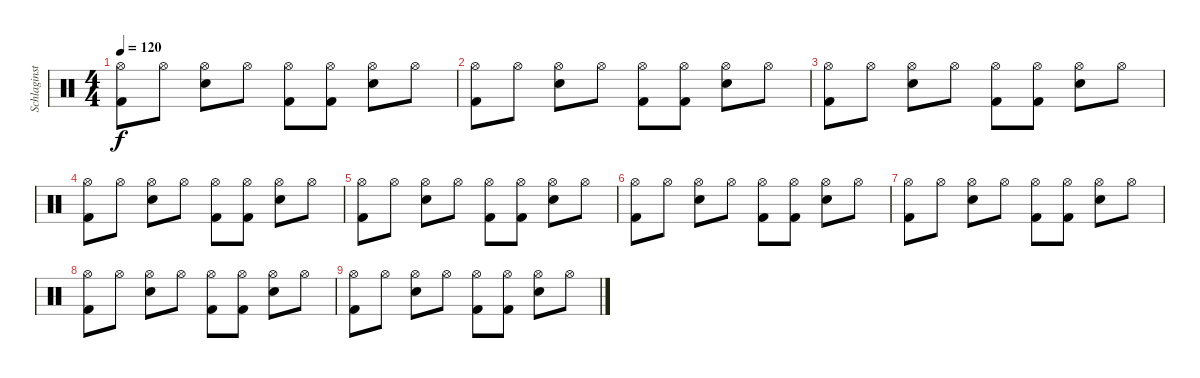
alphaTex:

\track ("Schlaginstrumente - Auswahl" "Schlaginst") {instrument percussion}
\staff {score}
\articulation defaults
\ts (4 4)
\tempo 120
\clef neutral
\ks c
("Hi-Hat (open)" "Kick (hit) 2").8{dy f} "Hi-Hat (open)".8 ("Hi-Hat (open)" "Electric Snare (hit)").8 "Hi-Hat (open)".8 ("Hi-Hat (open)" "Kick (hit) 2").8 ("Hi-Hat (open)" "Kick (hit) 2").8 ("Hi-Hat (open)" "Electric Snare (hit)").8 "Hi-Hat (open)".8 |
("Hi-Hat (open)" "Kick (hit) 2").8 "Hi-Hat (open)".8 ("Hi-Hat (open)" "Electric Snare (hit)").8 "Hi-Hat (open)".8 ("Hi-Hat (open)" "Kick (hit) 2").8 ("Hi-Hat (open)" "Kick (hit) 2").8 ("Hi-Hat (open)" "Electric Snare (hit)").8 "Hi-Hat (open)".8 |
("Hi-Hat (open)" "Kick (hit) 2").8 "Hi-Hat (open)".8 ("Hi-Hat (open)" "Electric Snare (hit)").8 "Hi-Hat (open)".8 ("Hi-Hat (open)" "Kick (hit) 2").8 ("Hi-Hat (open)" "Kick (hit) 2").8 ("Hi-Hat (open)" "Electric Snare (hit)").8 "Hi-Hat (open)".8 |
("Hi-Hat (open)" "Kick (hit) 2").8 "Hi-Hat (open)".8 ("Hi-Hat (open)" "Electric Snare (hit)").8 "Hi-Hat (open)".8 ("Hi-Hat (open)" "Kick (hit) 2").8 ("Hi-Hat (open)" "Kick (hit) 2").8 ("Hi-Hat (open)" "Electric Snare (hit)").8 "Hi-Hat (open)".8 |
("Hi-Hat (open)" "Kick (hit) 2").8 "Hi-Hat (open)".8 ("Hi-Hat (open)" "Electric Snare (hit)").8 "Hi-Hat (open)".8 ("Hi-Hat (open)" "Kick (hit) 2").8 ("Hi-Hat (open)" "Kick (hit) 2").8 ("Hi-Hat (open)" "Electric Snare (hit)").8 "Hi-Hat (open)".8 |
("Hi-Hat (open)" "Kick (hit) 2").8 "Hi-Hat (open)".8 ("Hi-Hat (open)" "Electric Snare (hit)").8 "Hi-Hat (open)".8 ("Hi-Hat (open)" "Kick (hit) 2").8 ("Hi-Hat (open)" "Kick (hit) 2").8 ("Hi-Hat (open)" "Electric Snare (hit)").8 "Hi-Hat (open)".8 |
("Hi-Hat (open)" "Kick (hit) 2").8 "Hi-Hat (open)".8 ("Hi-Hat (open)" "Electric Snare (hit)").8 "Hi-Hat (open)".8 ("Hi-Hat (open)" "Kick (hit) 2").8 ("Hi-Hat (open)" "Kick (hit) 2").8 ("Hi-Hat (open)" "Electric Snare (hit)").8 "Hi-Hat (open)".8 |
("Hi-Hat (open)" "Kick (hit) 2").8 "Hi-Hat (open)".8 ("Hi-Hat (open)" "Electric Snare (hit)").8 "Hi-Hat (open)".8 ("Hi-Hat (open)" "Kick (hit) 2").8 ("Hi-Hat (open)" "Kick (hit) 2").8 ("Hi-Hat (open)" "Electric Snare (hit)").8 "Hi-Hat (open)".8 |
("Hi-Hat (open)" "Kick (hit) 2").8 "Hi-Hat (open)".8 ("Hi-Hat (open)" "Electric Snare (hit)").8 "Hi-Hat (open)".8 ("Hi-Hat (open)" "Kick (hit) 2").8 ("Hi-Hat (open)" "Kick (hit) 2").8 ("Hi-Hat (open)" "Electric Snare (hit)").8 "Hi-Hat (open)".8
